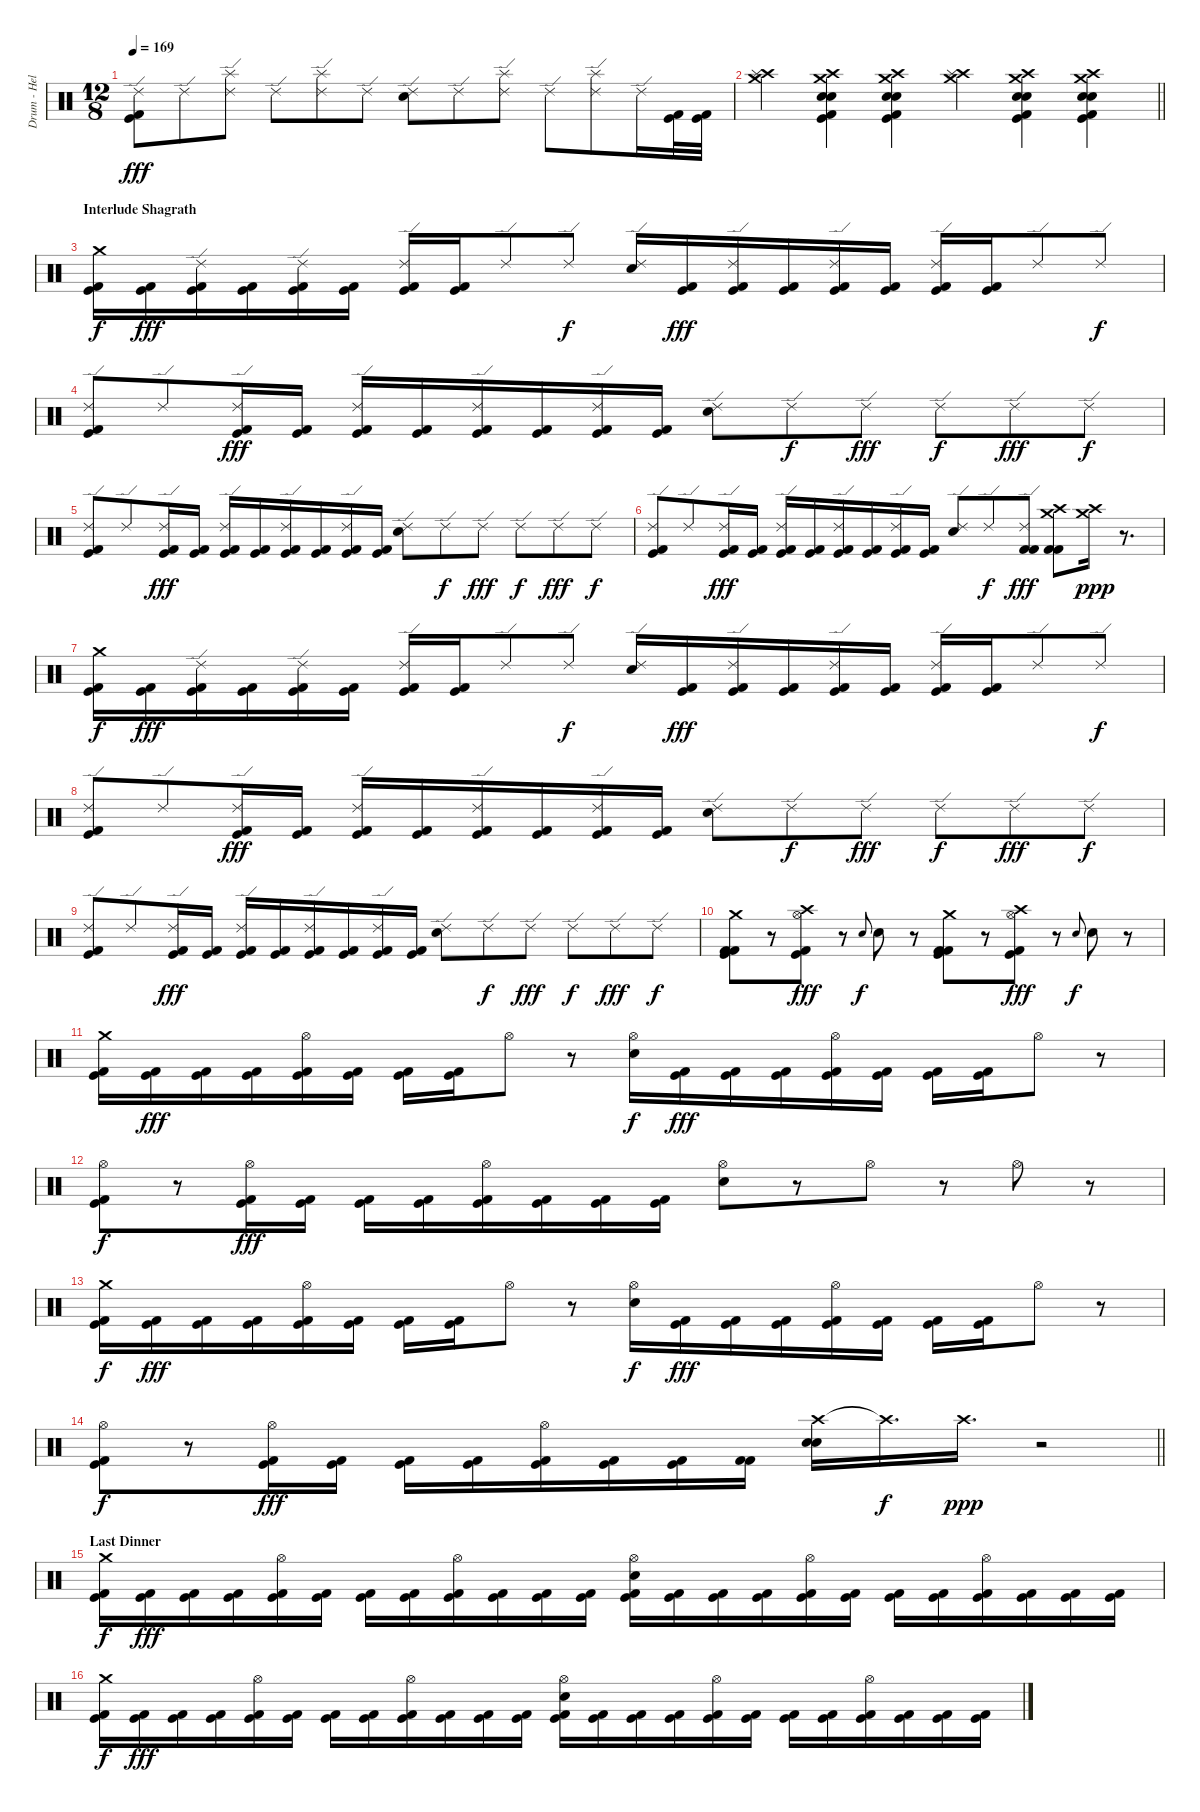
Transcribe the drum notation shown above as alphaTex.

\track ("Drum - Hellhammer" "Drum - Hel") {instrument percussion}
\staff {score}
\articulation defaults
\ts (12 8)
\tempo 169
\clef neutral
\ks c
("Ride (edge) 2" "Kick (hit) 2" "Kick (hit)").8{dy fff} "Ride (edge) 2".8 ("Splash (hit)" "Ride (edge) 2").8 "Ride (edge) 2".8 ("Splash (hit)" "Ride (edge) 2").8 "Ride (edge) 2".8 ("Electric Snare (hit)" "Ride (edge) 2").8 "Ride (edge) 2".8 ("Splash (hit)" "Ride (edge) 2").8 "Ride (edge) 2".8 ("Splash (hit)" "Ride (edge) 2").8 "Ride (edge) 2".16 ("Kick (hit)" "Kick (hit) 2").32 ("Kick (hit)" "Kick (hit) 2").32 |
\barLineRight lightlight
("Crash high (hit)" "Crash medium (hit)" "Splash (hit)").4 ("Crash medium (hit)" "Crash high (hit)" "Electric Snare (hit)" "Electric Snare (hit)" "Kick (hit)" "Kick (hit) 2").4 ("Crash medium (hit)" "Crash high (hit)" "Electric Snare (hit)" "Electric Snare (hit)" "Kick (hit)" "Kick (hit) 2").4 ("Crash high (hit)" "Crash medium (hit)" "Splash (hit)").4 ("Crash medium (hit)" "Crash high (hit)" "Electric Snare (hit)" "Electric Snare (hit)" "Kick (hit)" "Kick (hit) 2").4 ("Crash medium (hit)" "Crash high (hit)" "Electric Snare (hit)" "Electric Snare (hit)" "Kick (hit)" "Kick (hit) 2").4 |
\section ("" "Interlude Shagrath")
("Crash medium (hit)" "Kick (hit) 2" "Kick (hit)").16{dy f} ("Kick (hit) 2" "Kick (hit)").16{dy fff} ("Ride (edge) 2" "Kick (hit) 2" "Kick (hit)").16 ("Kick (hit) 2" "Kick (hit)").16 ("Ride (edge) 2" "Kick (hit) 2" "Kick (hit)").16 ("Kick (hit) 2" "Kick (hit)").16 ("Ride (edge) 2" "Kick (hit) 2" "Kick (hit)").16 ("Kick (hit) 2" "Kick (hit)").16 "Ride (edge) 2".8 "Ride (edge) 2".8{dy f} ("Electric Snare (hit)" "Ride (edge) 2").16 ("Kick (hit) 2" "Kick (hit)").16{dy fff} ("Ride (edge) 2" "Kick (hit) 2" "Kick (hit)").16 ("Kick (hit) 2" "Kick (hit)").16 ("Ride (edge) 2" "Kick (hit) 2" "Kick (hit)").16 ("Kick (hit) 2" "Kick (hit)").16 ("Ride (edge) 2" "Kick (hit) 2" "Kick (hit)").16 ("Kick (hit) 2" "Kick (hit)").16 "Ride (edge) 2".8 "Ride (edge) 2".8{dy f} |
("Ride (edge) 2" "Kick (hit) 2" "Kick (hit)").8 "Ride (edge) 2".8 ("Ride (edge) 2" "Kick (hit) 2" "Kick (hit)").16{dy fff} ("Kick (hit) 2" "Kick (hit)").16 ("Ride (edge) 2" "Kick (hit) 2" "Kick (hit)").16 ("Kick (hit) 2" "Kick (hit)").16 ("Ride (edge) 2" "Kick (hit) 2" "Kick (hit)").16 ("Kick (hit) 2" "Kick (hit)").16 ("Ride (edge) 2" "Kick (hit) 2" "Kick (hit)").16 ("Kick (hit) 2" "Kick (hit)").16 ("Electric Snare (hit)" "Ride (edge) 2").8 "Ride (edge) 2".8{dy f} "Ride (edge) 2".8{dy fff} "Ride (edge) 2".8{dy f} "Ride (edge) 2".8{dy fff} "Ride (edge) 2".8{dy f} |
("Ride (edge) 2" "Kick (hit) 2" "Kick (hit)").8 "Ride (edge) 2".8 ("Ride (edge) 2" "Kick (hit) 2" "Kick (hit)").16{dy fff} ("Kick (hit) 2" "Kick (hit)").16 ("Ride (edge) 2" "Kick (hit) 2" "Kick (hit)").16 ("Kick (hit) 2" "Kick (hit)").16 ("Ride (edge) 2" "Kick (hit) 2" "Kick (hit)").16 ("Kick (hit) 2" "Kick (hit)").16 ("Ride (edge) 2" "Kick (hit) 2" "Kick (hit)").16 ("Kick (hit) 2" "Kick (hit)").16 ("Electric Snare (hit)" "Ride (edge) 2").8 "Ride (edge) 2".8{dy f} "Ride (edge) 2".8{dy fff} "Ride (edge) 2".8{dy f} "Ride (edge) 2".8{dy fff} "Ride (edge) 2".8{dy f} |
("Ride (edge) 2" "Kick (hit) 2" "Kick (hit)").8 "Ride (edge) 2".8 ("Ride (edge) 2" "Kick (hit) 2" "Kick (hit)").16{dy fff} ("Kick (hit) 2" "Kick (hit)").16 ("Ride (edge) 2" "Kick (hit) 2" "Kick (hit)").16 ("Kick (hit) 2" "Kick (hit)").16 ("Ride (edge) 2" "Kick (hit) 2" "Kick (hit)").16 ("Kick (hit) 2" "Kick (hit)").16 ("Ride (edge) 2" "Kick (hit) 2" "Kick (hit)").16 ("Kick (hit) 2" "Kick (hit)").16 ("Electric Snare (hit)" "Ride (edge) 2").8 "Ride (edge) 2".8{dy f} ("Ride (edge) 2" "Kick (hit) 2" "Kick (hit) 2").8{dy fff} ("Crash medium (hit)" "Crash high (hit)" "Kick (hit) 2" "Kick (hit) 2").8 ("Crash medium (hit)" "Crash high (hit)").16{dy ppp} r.8{d} |
("Crash medium (hit)" "Kick (hit) 2" "Kick (hit)").16{dy f} ("Kick (hit) 2" "Kick (hit)").16{dy fff} ("Ride (edge) 2" "Kick (hit) 2" "Kick (hit)").16 ("Kick (hit) 2" "Kick (hit)").16 ("Ride (edge) 2" "Kick (hit) 2" "Kick (hit)").16 ("Kick (hit) 2" "Kick (hit)").16 ("Ride (edge) 2" "Kick (hit) 2" "Kick (hit)").16 ("Kick (hit) 2" "Kick (hit)").16 "Ride (edge) 2".8 "Ride (edge) 2".8{dy f} ("Electric Snare (hit)" "Ride (edge) 2").16 ("Kick (hit) 2" "Kick (hit)").16{dy fff} ("Ride (edge) 2" "Kick (hit) 2" "Kick (hit)").16 ("Kick (hit) 2" "Kick (hit)").16 ("Ride (edge) 2" "Kick (hit) 2" "Kick (hit)").16 ("Kick (hit) 2" "Kick (hit)").16 ("Ride (edge) 2" "Kick (hit) 2" "Kick (hit)").16 ("Kick (hit) 2" "Kick (hit)").16 "Ride (edge) 2".8 "Ride (edge) 2".8{dy f} |
("Ride (edge) 2" "Kick (hit) 2" "Kick (hit)").8 "Ride (edge) 2".8 ("Ride (edge) 2" "Kick (hit) 2" "Kick (hit)").16{dy fff} ("Kick (hit) 2" "Kick (hit)").16 ("Ride (edge) 2" "Kick (hit) 2" "Kick (hit)").16 ("Kick (hit) 2" "Kick (hit)").16 ("Ride (edge) 2" "Kick (hit) 2" "Kick (hit)").16 ("Kick (hit) 2" "Kick (hit)").16 ("Ride (edge) 2" "Kick (hit) 2" "Kick (hit)").16 ("Kick (hit) 2" "Kick (hit)").16 ("Electric Snare (hit)" "Ride (edge) 2").8 "Ride (edge) 2".8{dy f} "Ride (edge) 2".8{dy fff} "Ride (edge) 2".8{dy f} "Ride (edge) 2".8{dy fff} "Ride (edge) 2".8{dy f} |
("Ride (edge) 2" "Kick (hit) 2" "Kick (hit)").8 "Ride (edge) 2".8 ("Ride (edge) 2" "Kick (hit) 2" "Kick (hit)").16{dy fff} ("Kick (hit) 2" "Kick (hit)").16 ("Ride (edge) 2" "Kick (hit) 2" "Kick (hit)").16 ("Kick (hit) 2" "Kick (hit)").16 ("Ride (edge) 2" "Kick (hit) 2" "Kick (hit)").16 ("Kick (hit) 2" "Kick (hit)").16 ("Ride (edge) 2" "Kick (hit) 2" "Kick (hit)").16 ("Kick (hit) 2" "Kick (hit)").16 ("Electric Snare (hit)" "Ride (edge) 2").8 "Ride (edge) 2".8{dy f} "Ride (edge) 2".8{dy fff} "Ride (edge) 2".8{dy f} "Ride (edge) 2".8{dy fff} "Ride (edge) 2".8{dy f} |
("Crash medium (hit)" "Kick (hit) 2" "Kick (hit) 2" "Kick (hit)").8 r.8 ("Crash high (hit)" "Hi-Hat (open)" "Kick (hit) 2" "Kick (hit)").8{dy fff} r.8 "Electric Snare (hit)".8{gr onbeat dy f} "Electric Snare (hit)".8 r.8 ("Crash medium (hit)" "Kick (hit) 2" "Kick (hit) 2" "Kick (hit)").8 r.8 ("Crash high (hit)" "Hi-Hat (open)" "Kick (hit) 2" "Kick (hit)").8{dy fff} r.8 "Electric Snare (hit)".8{gr onbeat dy f} "Electric Snare (hit)".8 r.8 |
("Crash medium (hit)" "Kick (hit) 2" "Kick (hit)").16 ("Kick (hit) 2" "Kick (hit)").16{dy fff} ("Kick (hit) 2" "Kick (hit)").16 ("Kick (hit) 2" "Kick (hit)").16 ("Hi-Hat (open)" "Kick (hit) 2" "Kick (hit)").16 ("Kick (hit) 2" "Kick (hit)").16 ("Kick (hit) 2" "Kick (hit)").16 ("Kick (hit) 2" "Kick (hit)").16 "Hi-Hat (open)".8 r.8 ("Electric Snare (hit)" "Hi-Hat (open)").16{dy f} ("Kick (hit) 2" "Kick (hit)").16{dy fff} ("Kick (hit) 2" "Kick (hit)").16 ("Kick (hit) 2" "Kick (hit)").16 ("Hi-Hat (open)" "Kick (hit) 2" "Kick (hit)").16 ("Kick (hit) 2" "Kick (hit)").16 ("Kick (hit) 2" "Kick (hit)").16 ("Kick (hit) 2" "Kick (hit)").16 "Hi-Hat (open)".8 r.8 |
("Hi-Hat (open)" "Kick (hit) 2" "Kick (hit)").8{dy f} r.8 ("Hi-Hat (open)" "Kick (hit) 2" "Kick (hit)").16{dy fff} ("Kick (hit) 2" "Kick (hit)").16 ("Kick (hit) 2" "Kick (hit)").16 ("Kick (hit) 2" "Kick (hit)").16 ("Hi-Hat (open)" "Kick (hit) 2" "Kick (hit)").16 ("Kick (hit) 2" "Kick (hit)").16 ("Kick (hit) 2" "Kick (hit)").16 ("Kick (hit) 2" "Kick (hit)").16 ("Electric Snare (hit)" "Hi-Hat (open)").8 r.8 "Hi-Hat (open)".8 r.8 "Hi-Hat (open)".8 r.8 |
("Crash medium (hit)" "Kick (hit) 2" "Kick (hit)").16{dy f} ("Kick (hit) 2" "Kick (hit)").16{dy fff} ("Kick (hit) 2" "Kick (hit)").16 ("Kick (hit) 2" "Kick (hit)").16 ("Hi-Hat (open)" "Kick (hit) 2" "Kick (hit)").16 ("Kick (hit) 2" "Kick (hit)").16 ("Kick (hit) 2" "Kick (hit)").16 ("Kick (hit) 2" "Kick (hit)").16 "Hi-Hat (open)".8 r.8 ("Electric Snare (hit)" "Hi-Hat (open)").16{dy f} ("Kick (hit) 2" "Kick (hit)").16{dy fff} ("Kick (hit) 2" "Kick (hit)").16 ("Kick (hit) 2" "Kick (hit)").16 ("Hi-Hat (open)" "Kick (hit) 2" "Kick (hit)").16 ("Kick (hit) 2" "Kick (hit)").16 ("Kick (hit) 2" "Kick (hit)").16 ("Kick (hit) 2" "Kick (hit)").16 "Hi-Hat (open)".8 r.8 |
\barLineRight lightlight
("Hi-Hat (open)" "Kick (hit) 2" "Kick (hit)").8{dy f} r.8 ("Hi-Hat (open)" "Kick (hit) 2" "Kick (hit)").16{dy fff} ("Kick (hit) 2" "Kick (hit)").16 ("Kick (hit) 2" "Kick (hit)").16 ("Kick (hit) 2" "Kick (hit)").16 ("Hi-Hat (open)" "Kick (hit) 2" "Kick (hit)").16 ("Kick (hit) 2" "Kick (hit)").16 ("Kick (hit) 2" "Kick (hit)").16 ("Kick (hit) 2" "Kick (hit) 2").16 ("Crash high (hit)" "Electric Snare (hit)" "Electric Snare (hit)").16 "Crash high (hit)"{t}.16{d dy f} "Crash high (hit)".16{d dy ppp} r.2 |
\section ("" "Last Dinner")
("Crash medium (hit)" "Kick (hit) 2" "Kick (hit)").16{dy f} ("Kick (hit) 2" "Kick (hit)").16{dy fff} ("Kick (hit) 2" "Kick (hit)").16 ("Kick (hit) 2" "Kick (hit)").16 ("Hi-Hat (open)" "Kick (hit) 2" "Kick (hit)").16 ("Kick (hit) 2" "Kick (hit)").16 ("Kick (hit) 2" "Kick (hit)").16 ("Kick (hit) 2" "Kick (hit)").16 ("Hi-Hat (open)" "Kick (hit) 2" "Kick (hit)").16 ("Kick (hit) 2" "Kick (hit)").16 ("Kick (hit) 2" "Kick (hit)").16 ("Kick (hit) 2" "Kick (hit)").16 ("Electric Snare (hit)" "Hi-Hat (open)" "Kick (hit) 2" "Kick (hit)").16 ("Kick (hit) 2" "Kick (hit)").16 ("Kick (hit) 2" "Kick (hit)").16 ("Kick (hit) 2" "Kick (hit)").16 ("Hi-Hat (open)" "Kick (hit) 2" "Kick (hit)").16 ("Kick (hit) 2" "Kick (hit)").16 ("Kick (hit) 2" "Kick (hit)").16 ("Kick (hit) 2" "Kick (hit)").16 ("Hi-Hat (open)" "Kick (hit) 2" "Kick (hit)").16 ("Kick (hit) 2" "Kick (hit)").16 ("Kick (hit) 2" "Kick (hit)").16 ("Kick (hit) 2" "Kick (hit)").16 |
("Crash medium (hit)" "Kick (hit) 2" "Kick (hit)").16{dy f} ("Kick (hit) 2" "Kick (hit)").16{dy fff} ("Kick (hit) 2" "Kick (hit)").16 ("Kick (hit) 2" "Kick (hit)").16 ("Hi-Hat (open)" "Kick (hit) 2" "Kick (hit)").16 ("Kick (hit) 2" "Kick (hit)").16 ("Kick (hit) 2" "Kick (hit)").16 ("Kick (hit) 2" "Kick (hit)").16 ("Hi-Hat (open)" "Kick (hit) 2" "Kick (hit)").16 ("Kick (hit) 2" "Kick (hit)").16 ("Kick (hit) 2" "Kick (hit)").16 ("Kick (hit) 2" "Kick (hit)").16 ("Electric Snare (hit)" "Hi-Hat (open)" "Kick (hit) 2" "Kick (hit)").16 ("Kick (hit) 2" "Kick (hit)").16 ("Kick (hit) 2" "Kick (hit)").16 ("Kick (hit) 2" "Kick (hit)").16 ("Hi-Hat (open)" "Kick (hit) 2" "Kick (hit)").16 ("Kick (hit) 2" "Kick (hit)").16 ("Kick (hit) 2" "Kick (hit)").16 ("Kick (hit) 2" "Kick (hit)").16 ("Hi-Hat (open)" "Kick (hit) 2" "Kick (hit)").16 ("Kick (hit) 2" "Kick (hit)").16 ("Kick (hit) 2" "Kick (hit)").16 ("Kick (hit) 2" "Kick (hit)").16
